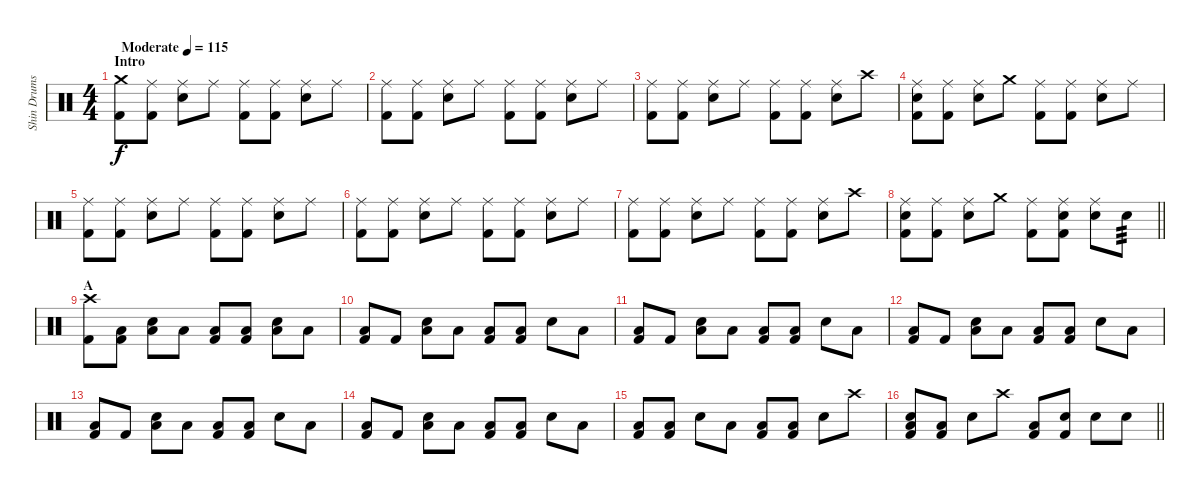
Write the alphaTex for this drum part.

\track ("Shin Drums" "Shin Drums") {instrument percussion}
\staff {score}
\articulation defaults
\ts (4 4)
\section ("" "Intro")
\tempo (115 "Moderate")
\clef neutral
\ks c
("Crash medium (hit)" "Kick (hit) 2").8{dy f} ("Ride (middle)" "Kick (hit) 2").8 ("Ride (middle)" "Snare (hit) 2").8 "Ride (middle)".8 ("Ride (middle)" "Kick (hit) 2").8 ("Ride (middle)" "Kick (hit) 2").8 ("Ride (middle)" "Snare (hit) 2").8 "Ride (middle)".8 |
("Ride (middle)" "Kick (hit) 2").8 ("Ride (middle)" "Kick (hit) 2").8 ("Ride (middle)" "Snare (hit) 2").8 "Ride (middle)".8 ("Ride (middle)" "Kick (hit) 2").8 ("Ride (middle)" "Kick (hit) 2").8 ("Ride (middle)" "Snare (hit) 2").8 "Ride (middle)".8 |
("Ride (middle)" "Kick (hit) 2").8 ("Ride (middle)" "Kick (hit) 2").8 ("Ride (middle)" "Snare (hit) 2").8 "Ride (middle)".8 ("Ride (middle)" "Kick (hit) 2").8 ("Ride (middle)" "Kick (hit) 2").8 ("Ride (middle)" "Snare (hit) 2").8 "Crash high (hit)".8 |
("Ride (middle)" "Snare (hit) 2" "Kick (hit) 2").8 ("Ride (middle)" "Kick (hit) 2").8 ("Ride (middle)" "Snare (hit) 2").8 "Crash medium (hit)".8 ("Ride (middle)" "Kick (hit) 2").8 ("Ride (middle)" "Kick (hit) 2").8 ("Ride (middle)" "Snare (hit) 2").8 "Ride (middle)".8 |
("Ride (middle)" "Kick (hit) 2").8 ("Ride (middle)" "Kick (hit) 2").8 ("Ride (middle)" "Snare (hit) 2").8 "Ride (middle)".8 ("Ride (middle)" "Kick (hit) 2").8 ("Ride (middle)" "Kick (hit) 2").8 ("Ride (middle)" "Snare (hit) 2").8 "Ride (middle)".8 |
("Ride (middle)" "Kick (hit) 2").8 ("Ride (middle)" "Kick (hit) 2").8 ("Ride (middle)" "Snare (hit) 2").8 "Ride (middle)".8 ("Ride (middle)" "Kick (hit) 2").8 ("Ride (middle)" "Kick (hit) 2").8 ("Ride (middle)" "Snare (hit) 2").8 "Ride (middle)".8 |
("Ride (middle)" "Kick (hit) 2").8 ("Ride (middle)" "Kick (hit) 2").8 ("Ride (middle)" "Snare (hit) 2").8 "Ride (middle)".8 ("Ride (middle)" "Kick (hit) 2").8 ("Ride (middle)" "Kick (hit) 2").8 ("Ride (middle)" "Snare (hit) 2").8 "Crash high (hit)".8 |
\barLineRight lightlight
("Ride (middle)" "Snare (hit) 2" "Kick (hit) 2").8 ("Ride (middle)" "Kick (hit) 2").8 ("Ride (middle)" "Snare (hit) 2").8 "Crash medium (hit)".8 ("Ride (middle)" "Kick (hit) 2").8 ("Ride (middle)" "Snare (hit) 2" "Kick (hit) 2").8 ("Ride (middle)" "Snare (hit) 2").8 "Snare (hit) 2".8{tp 3} |
\section ("" "A")
("Crash high (hit)" "Kick (hit) 2").8 ("Low Floor Tom (hit)" "Kick (hit) 2").8 ("Low Floor Tom (hit)" "Snare (hit) 2").8 "Low Floor Tom (hit)".8 ("Low Floor Tom (hit)" "Kick (hit) 2").8 ("Low Floor Tom (hit)" "Kick (hit) 2").8 ("Low Floor Tom (hit)" "Snare (hit) 2").8 "Low Floor Tom (hit)".8 |
("Low Floor Tom (hit)" "Kick (hit) 2").8 "Kick (hit) 2".8 ("Low Floor Tom (hit)" "Snare (hit) 2").8 "Low Floor Tom (hit)".8 ("Low Floor Tom (hit)" "Kick (hit) 2").8 ("Low Floor Tom (hit)" "Kick (hit) 2").8 "Snare (hit) 2".8 "Low Floor Tom (hit)".8 |
("Low Floor Tom (hit)" "Kick (hit) 2").8 "Kick (hit) 2".8 ("Low Floor Tom (hit)" "Snare (hit) 2").8 "Low Floor Tom (hit)".8 ("Low Floor Tom (hit)" "Kick (hit) 2").8 ("Low Floor Tom (hit)" "Kick (hit) 2").8 "Snare (hit) 2".8 "Low Floor Tom (hit)".8 |
("Low Floor Tom (hit)" "Kick (hit) 2").8 "Kick (hit) 2".8 ("Low Floor Tom (hit)" "Snare (hit) 2").8 "Low Floor Tom (hit)".8 ("Low Floor Tom (hit)" "Kick (hit) 2").8 ("Low Floor Tom (hit)" "Kick (hit) 2").8 "Snare (hit) 2".8 "Low Floor Tom (hit)".8 |
("Low Floor Tom (hit)" "Kick (hit) 2").8 "Kick (hit) 2".8 ("Low Floor Tom (hit)" "Snare (hit) 2").8 "Low Floor Tom (hit)".8 ("Low Floor Tom (hit)" "Kick (hit) 2").8 ("Low Floor Tom (hit)" "Kick (hit) 2").8 "Snare (hit) 2".8 "Low Floor Tom (hit)".8 |
("Low Floor Tom (hit)" "Kick (hit) 2").8 "Kick (hit) 2".8 ("Low Floor Tom (hit)" "Snare (hit) 2").8 "Low Floor Tom (hit)".8 ("Low Floor Tom (hit)" "Kick (hit) 2").8 ("Low Floor Tom (hit)" "Kick (hit) 2").8 "Snare (hit) 2".8 "Low Floor Tom (hit)".8 |
("Low Floor Tom (hit)" "Kick (hit) 2").8 ("Low Floor Tom (hit)" "Kick (hit) 2").8 "Snare (hit) 2".8 "Low Floor Tom (hit)".8 ("Low Floor Tom (hit)" "Kick (hit) 2").8 ("Low Floor Tom (hit)" "Kick (hit) 2").8 "Snare (hit) 2".8 "Crash high (hit)".8 |
\barLineRight lightlight
("Low Floor Tom (hit)" "Snare (hit) 2" "Kick (hit) 2").8 ("Low Floor Tom (hit)" "Kick (hit) 2").8 "Snare (hit) 2".8 "Crash high (hit)".8 ("Low Floor Tom (hit)" "Kick (hit) 2").8 ("Snare (hit) 2" "Kick (hit) 2").8 "Snare (hit) 2".8 "Snare (hit) 2".8
